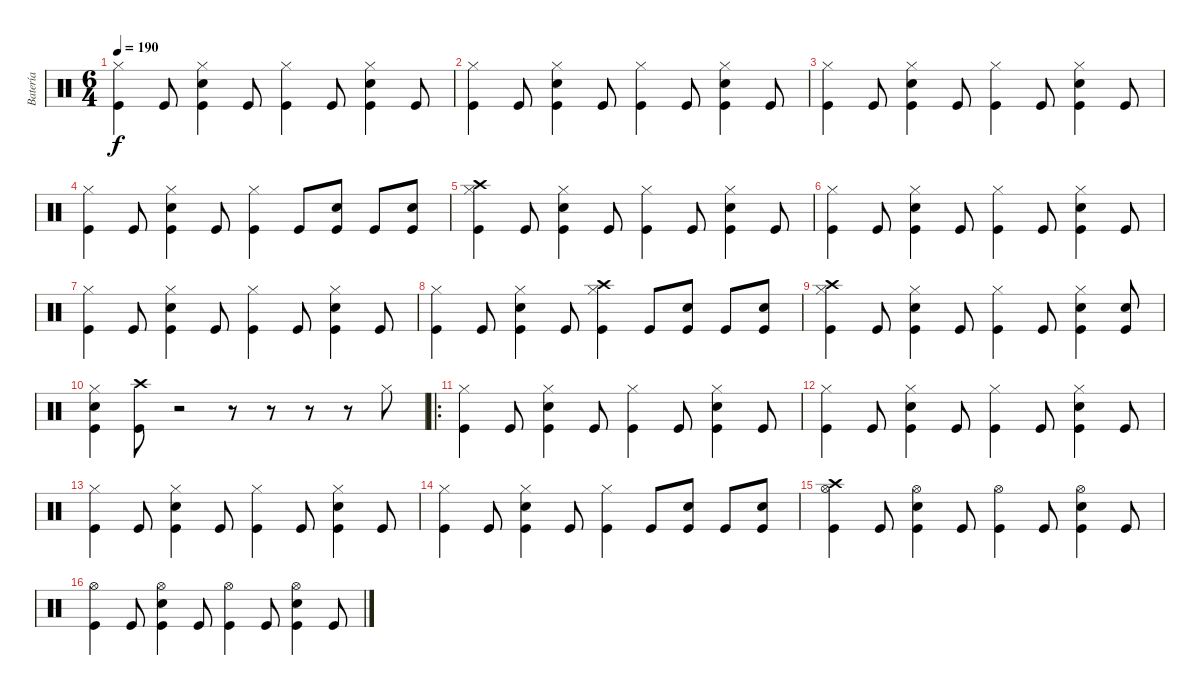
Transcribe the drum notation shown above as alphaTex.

\track ("Batería" "Batería") {instrument percussion}
\staff {score}
\articulation defaults
\ts (6 4)
\tempo 185
\tempo 200
\tempo 190
\clef neutral
\ks c
("Hi-Hat (closed)" "Kick (hit)").4{dy f} "Kick (hit)".8 ("Kick (hit)" "Hi-Hat (closed)" "Snare (hit) 2").4 "Kick (hit)".8 ("Hi-Hat (closed)" "Kick (hit)").4 "Kick (hit)".8 ("Kick (hit)" "Hi-Hat (closed)" "Snare (hit) 2").4 "Kick (hit)".8 |
("Hi-Hat (closed)" "Kick (hit)").4 "Kick (hit)".8 ("Kick (hit)" "Hi-Hat (closed)" "Snare (hit) 2").4 "Kick (hit)".8 ("Hi-Hat (closed)" "Kick (hit)").4 "Kick (hit)".8 ("Kick (hit)" "Hi-Hat (closed)" "Snare (hit) 2").4 "Kick (hit)".8 |
("Hi-Hat (closed)" "Kick (hit)").4 "Kick (hit)".8 ("Kick (hit)" "Hi-Hat (closed)" "Snare (hit) 2").4 "Kick (hit)".8 ("Hi-Hat (closed)" "Kick (hit)").4 "Kick (hit)".8 ("Kick (hit)" "Hi-Hat (closed)" "Snare (hit) 2").4 "Kick (hit)".8 |
("Hi-Hat (closed)" "Kick (hit)").4 "Kick (hit)".8 ("Kick (hit)" "Hi-Hat (closed)" "Snare (hit) 2").4 "Kick (hit)".8 ("Hi-Hat (closed)" "Kick (hit)").4 "Kick (hit)".8 ("Kick (hit)" "Snare (hit) 2").8 "Kick (hit)".8 ("Kick (hit)" "Snare (hit) 2").8 |
("Crash high (hit)" "Hi-Hat (closed)" "Kick (hit)").4 "Kick (hit)".8 ("Kick (hit)" "Hi-Hat (closed)" "Snare (hit) 2").4 "Kick (hit)".8 ("Hi-Hat (closed)" "Kick (hit)").4 "Kick (hit)".8 ("Kick (hit)" "Hi-Hat (closed)" "Snare (hit) 2").4 "Kick (hit)".8 |
("Hi-Hat (closed)" "Kick (hit)").4 "Kick (hit)".8 ("Kick (hit)" "Hi-Hat (closed)" "Snare (hit) 2").4 "Kick (hit)".8 ("Hi-Hat (closed)" "Kick (hit)").4 "Kick (hit)".8 ("Kick (hit)" "Hi-Hat (closed)" "Snare (hit) 2").4 "Kick (hit)".8 |
("Hi-Hat (closed)" "Kick (hit)").4 "Kick (hit)".8 ("Kick (hit)" "Hi-Hat (closed)" "Snare (hit) 2").4 "Kick (hit)".8 ("Hi-Hat (closed)" "Kick (hit)").4 "Kick (hit)".8 ("Kick (hit)" "Hi-Hat (closed)" "Snare (hit) 2").4 "Kick (hit)".8 |
("Hi-Hat (closed)" "Kick (hit)").4 "Kick (hit)".8 ("Kick (hit)" "Hi-Hat (closed)" "Snare (hit) 2").4 "Kick (hit)".8 ("Crash high (hit)" "Hi-Hat (closed)" "Kick (hit)").4 "Kick (hit)".8 ("Kick (hit)" "Snare (hit) 2").8 "Kick (hit)".8 ("Kick (hit)" "Snare (hit) 2").8 |
("Crash high (hit)" "Hi-Hat (closed)" "Kick (hit)").4 "Kick (hit)".8 ("Kick (hit)" "Hi-Hat (closed)" "Snare (hit) 2").4 "Kick (hit)".8 ("Hi-Hat (closed)" "Kick (hit)").4 "Kick (hit)".8 ("Kick (hit)" "Hi-Hat (closed)" "Snare (hit) 2").4 ("Snare (hit) 2" "Kick (hit)").8 |
("Snare (hit) 2" "Hi-Hat (closed)" "Kick (hit)").4 ("Crash high (hit)" "Kick (hit)").8 r.2 r.8 r.8 r.8 r.8 "Hi-Hat (closed)".8 |
\ro
("Hi-Hat (closed)" "Kick (hit)").4 "Kick (hit)".8 ("Kick (hit)" "Hi-Hat (closed)" "Snare (hit) 2").4 "Kick (hit)".8 ("Hi-Hat (closed)" "Kick (hit)").4 "Kick (hit)".8 ("Kick (hit)" "Hi-Hat (closed)" "Snare (hit) 2").4 "Kick (hit)".8 |
("Hi-Hat (closed)" "Kick (hit)").4 "Kick (hit)".8 ("Kick (hit)" "Hi-Hat (closed)" "Snare (hit) 2").4 "Kick (hit)".8 ("Hi-Hat (closed)" "Kick (hit)").4 "Kick (hit)".8 ("Kick (hit)" "Hi-Hat (closed)" "Snare (hit) 2").4 "Kick (hit)".8 |
("Hi-Hat (closed)" "Kick (hit)").4 "Kick (hit)".8 ("Kick (hit)" "Hi-Hat (closed)" "Snare (hit) 2").4 "Kick (hit)".8 ("Hi-Hat (closed)" "Kick (hit)").4 "Kick (hit)".8 ("Kick (hit)" "Hi-Hat (closed)" "Snare (hit) 2").4 "Kick (hit)".8 |
("Hi-Hat (closed)" "Kick (hit)").4 "Kick (hit)".8 ("Kick (hit)" "Hi-Hat (closed)" "Snare (hit) 2").4 "Kick (hit)".8 ("Hi-Hat (closed)" "Kick (hit)").4 "Kick (hit)".8 ("Kick (hit)" "Snare (hit) 2").8 "Kick (hit)".8 ("Kick (hit)" "Snare (hit) 2").8 |
("Crash high (hit)" "Hi-Hat (open)" "Kick (hit)").4 "Kick (hit)".8 ("Kick (hit)" "Hi-Hat (open)" "Snare (hit) 2").4 "Kick (hit)".8 ("Hi-Hat (open)" "Kick (hit)").4 "Kick (hit)".8 ("Kick (hit)" "Hi-Hat (open)" "Snare (hit) 2").4 "Kick (hit)".8 |
("Hi-Hat (open)" "Kick (hit)").4 "Kick (hit)".8 ("Kick (hit)" "Hi-Hat (open)" "Snare (hit) 2").4 "Kick (hit)".8 ("Hi-Hat (open)" "Kick (hit)").4 "Kick (hit)".8 ("Kick (hit)" "Hi-Hat (open)" "Snare (hit) 2").4 "Kick (hit)".8
